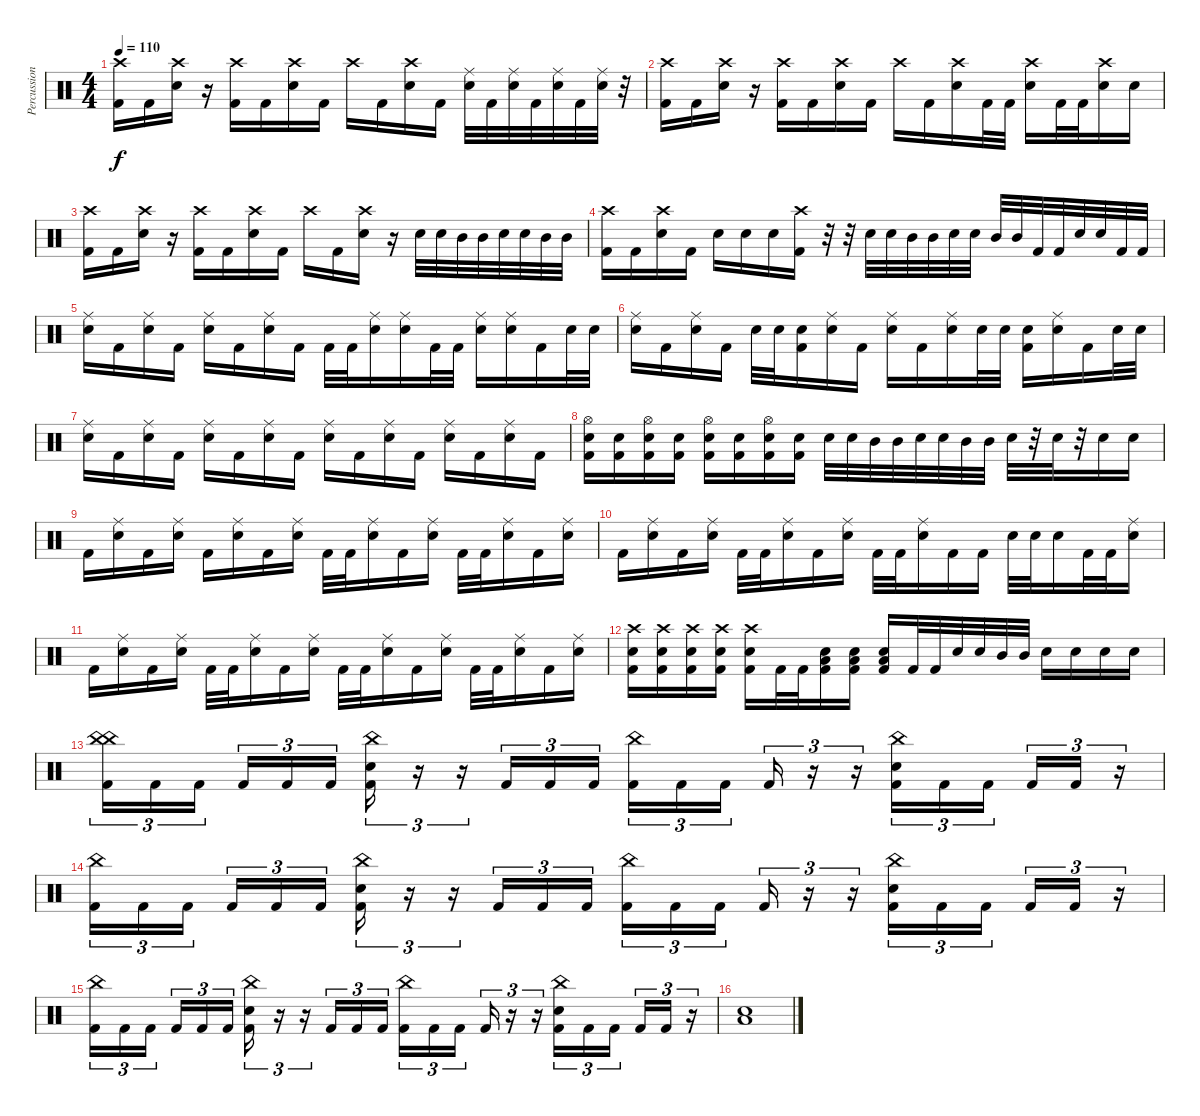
\track ("Percussion" "Percussion") {instrument percussion}
\staff {score}
\articulation defaults
\ts (4 4)
\tempo 110
\clef neutral
\ks c
("Crash high (hit)" "Kick (hit) 2").16{dy f} "Kick (hit) 2".16 ("Crash high (hit)" "Electric Snare (hit)").16 r.16 ("Crash high (hit)" "Kick (hit) 2").16 "Kick (hit) 2".16 ("Crash high (hit)" "Electric Snare (hit)").16 "Kick (hit) 2".16 "Crash high (hit)".16 "Kick (hit) 2".16 ("Crash high (hit)" "Electric Snare (hit)").16 "Kick (hit) 2".16 ("Ride (middle)" "Electric Snare (hit)").32 "Kick (hit) 2".32 ("Ride (middle)" "Electric Snare (hit)").32 "Kick (hit) 2".32 ("Ride (middle)" "Electric Snare (hit)").32 "Kick (hit) 2".32 ("Ride (middle)" "Electric Snare (hit)").32 r.32 |
("Crash high (hit)" "Kick (hit) 2").16 "Kick (hit) 2".16 ("Crash high (hit)" "Electric Snare (hit)").16 r.16 ("Crash high (hit)" "Kick (hit) 2").16 "Kick (hit) 2".16 ("Crash high (hit)" "Electric Snare (hit)").16 "Kick (hit) 2".16 "Crash high (hit)".16 "Kick (hit) 2".16 ("Crash high (hit)" "Electric Snare (hit)").16 "Kick (hit) 2".32 "Kick (hit) 2".32 ("Crash high (hit)" "Electric Snare (hit)").16 "Kick (hit) 2".32 "Kick (hit) 2".32 ("Crash high (hit)" "Electric Snare (hit)").16 "Electric Snare (hit)".16 |
("Crash high (hit)" "Kick (hit) 2").16 "Kick (hit) 2".16 ("Crash high (hit)" "Electric Snare (hit)").16 r.16 ("Crash high (hit)" "Kick (hit) 2").16 "Kick (hit) 2".16 ("Crash high (hit)" "Electric Snare (hit)").16 "Kick (hit) 2".16 "Crash high (hit)".16 "Kick (hit) 2".16 ("Crash high (hit)" "Electric Snare (hit)").16 r.16 "Electric Snare (hit)".32 "Electric Snare (hit)".32 "Mid Tom (hit)".32 "Mid Tom (hit)".32 "Electric Snare (hit)".32 "Electric Snare (hit)".32 "Mid Tom (hit)".32 "Mid Tom (hit)".32 |
("Crash high (hit)" "Kick (hit) 2").16 "Kick (hit) 2".16 ("Crash high (hit)" "Electric Snare (hit)").16 "Kick (hit) 2".16 "Electric Snare (hit)".16 "Electric Snare (hit)".16 "Electric Snare (hit)".16 ("Crash high (hit)" "Kick (hit) 2").16 r.32 r.32 "Electric Snare (hit)".32 "Electric Snare (hit)".32 "Mid Tom (hit)".32 "Mid Tom (hit)".32 "Electric Snare (hit)".32 "Electric Snare (hit)".32 "Mid Tom (hit)".32 "Mid Tom (hit)".32 "Kick (hit) 2".32 "Kick (hit) 2".32 "Electric Snare (hit)".32 "Electric Snare (hit)".32 "Kick (hit) 2".32 "Kick (hit) 2".32 |
("Ride (middle)" "Electric Snare (hit)").16 "Kick (hit) 2".16 ("Ride (middle)" "Electric Snare (hit)").16 "Kick (hit) 2".16 ("Ride (middle)" "Electric Snare (hit)").16 "Kick (hit) 2".16 ("Ride (middle)" "Electric Snare (hit)").16 "Kick (hit) 2".16 "Kick (hit) 2".32 "Kick (hit) 2".32 ("Ride (middle)" "Electric Snare (hit)").16 ("Ride (middle)" "Electric Snare (hit)").16 "Kick (hit) 2".32 "Kick (hit) 2".32 ("Ride (middle)" "Electric Snare (hit)").16 ("Ride (middle)" "Electric Snare (hit)").16 "Kick (hit) 2".16 "Electric Snare (hit)".32 "Electric Snare (hit)".32 |
("Ride (middle)" "Electric Snare (hit)").16 "Kick (hit) 2".16 ("Ride (middle)" "Electric Snare (hit)").16 "Kick (hit) 2".16 "Electric Snare (hit)".32 "Electric Snare (hit)".32 ("Electric Snare (hit)" "Kick (hit) 2").16 ("Ride (middle)" "Electric Snare (hit)").16 "Kick (hit) 2".16 ("Ride (middle)" "Electric Snare (hit)").16 "Kick (hit) 2".16 ("Ride (middle)" "Electric Snare (hit)").16 "Electric Snare (hit)".32 "Electric Snare (hit)".32 ("Electric Snare (hit)" "Kick (hit) 2").16 ("Ride (middle)" "Electric Snare (hit)").16 "Kick (hit) 2".16 "Electric Snare (hit)".32 "Electric Snare (hit)".32 |
("Ride (middle)" "Electric Snare (hit)").16 "Kick (hit) 2".16 ("Ride (middle)" "Electric Snare (hit)").16 "Kick (hit) 2".16 ("Ride (middle)" "Electric Snare (hit)").16 "Kick (hit) 2".16 ("Ride (middle)" "Electric Snare (hit)").16 "Kick (hit) 2".16 ("Ride (middle)" "Electric Snare (hit)").16 "Kick (hit) 2".16 ("Ride (middle)" "Electric Snare (hit)").16 "Kick (hit) 2".16 ("Ride (middle)" "Electric Snare (hit)").16 "Kick (hit) 2".16 ("Ride (middle)" "Electric Snare (hit)").16 "Kick (hit) 2".16 |
("Hi-Hat (open)" "Electric Snare (hit)" "Kick (hit) 2").16 ("Electric Snare (hit)" "Kick (hit) 2").16 ("Hi-Hat (open)" "Electric Snare (hit)" "Kick (hit) 2").16 ("Electric Snare (hit)" "Kick (hit) 2").16 ("Hi-Hat (open)" "Electric Snare (hit)" "Kick (hit) 2").16 ("Electric Snare (hit)" "Kick (hit) 2").16 ("Hi-Hat (open)" "Electric Snare (hit)" "Kick (hit) 2").16 ("Electric Snare (hit)" "Kick (hit) 2").16 "Electric Snare (hit)".32 "Electric Snare (hit)".32 "Mid Tom (hit)".32 "Mid Tom (hit)".32 "Electric Snare (hit)".32 "Electric Snare (hit)".32 "Mid Tom (hit)".32 "Mid Tom (hit)".32 "Electric Snare (hit)".32 r.32 "Electric Snare (hit)".32 r.32 "Electric Snare (hit)".16 "Electric Snare (hit)".16 |
"Kick (hit) 2".16 ("Ride (middle)" "Electric Snare (hit)").16 "Kick (hit) 2".16 ("Ride (middle)" "Electric Snare (hit)").16 "Kick (hit) 2".16 ("Ride (middle)" "Electric Snare (hit)").16 "Kick (hit) 2".16 ("Ride (middle)" "Electric Snare (hit)").16 "Kick (hit) 2".32 "Kick (hit) 2".32 ("Ride (middle)" "Electric Snare (hit)").16 "Kick (hit) 2".16 ("Ride (middle)" "Electric Snare (hit)").16 "Kick (hit) 2".32 "Kick (hit) 2".32 ("Ride (middle)" "Electric Snare (hit)").16 "Kick (hit) 2".16 ("Ride (middle)" "Electric Snare (hit)").16 |
"Kick (hit) 2".16 ("Ride (middle)" "Electric Snare (hit)").16 "Kick (hit) 2".16 ("Ride (middle)" "Electric Snare (hit)").16 "Kick (hit) 2".32 "Kick (hit) 2".32 ("Ride (middle)" "Electric Snare (hit)").16 "Kick (hit) 2".16 ("Ride (middle)" "Electric Snare (hit)").16 "Kick (hit) 2".32 "Kick (hit) 2".32 ("Ride (middle)" "Electric Snare (hit)").16 "Kick (hit) 2".16 "Kick (hit) 2".16 "Electric Snare (hit)".32 "Electric Snare (hit)".32 "Electric Snare (hit)".16 "Kick (hit) 2".32 "Kick (hit) 2".32 ("Ride (middle)" "Electric Snare (hit)").16 |
"Kick (hit) 2".16 ("Ride (middle)" "Electric Snare (hit)").16 "Kick (hit) 2".16 ("Ride (middle)" "Electric Snare (hit)").16 "Kick (hit) 2".32 "Kick (hit) 2".32 ("Ride (middle)" "Electric Snare (hit)").16 "Kick (hit) 2".16 ("Ride (middle)" "Electric Snare (hit)").16 "Kick (hit) 2".32 "Kick (hit) 2".32 ("Ride (middle)" "Electric Snare (hit)").16 "Kick (hit) 2".16 ("Ride (middle)" "Electric Snare (hit)").16 "Kick (hit) 2".32 "Kick (hit) 2".32 ("Ride (middle)" "Electric Snare (hit)").16 "Kick (hit) 2".16 ("Ride (middle)" "Electric Snare (hit)").16 |
("Crash high (hit)" "Electric Snare (hit)" "Kick (hit) 2").16 ("Crash high (hit)" "Electric Snare (hit)" "Kick (hit) 2").16 ("Crash high (hit)" "Electric Snare (hit)" "Kick (hit) 2").16 ("Crash high (hit)" "Electric Snare (hit)" "Kick (hit) 2").16 ("Crash high (hit)" "Electric Snare (hit)" "Kick (hit) 2").16 "Kick (hit) 2".32 "Kick (hit) 2".32 ("Low Floor Tom (hit)" "Electric Snare (hit)" "Kick (hit) 2").16 ("Low Floor Tom (hit)" "Electric Snare (hit)" "Kick (hit) 2").16 ("Low Floor Tom (hit)" "Electric Snare (hit)" "Kick (hit) 2").16 "Kick (hit) 2".32 "Kick (hit) 2".32 "Electric Snare (hit)".32 "Electric Snare (hit)".32 "Mid Tom (hit)".32 "Mid Tom (hit)".32 "Electric Snare (hit)".16 "Electric Snare (hit)".16 "Electric Snare (hit)".16 "Electric Snare (hit)".16 |
("China (hit)" "China (hit)" "Kick (hit) 2").16{tu (3 2)} "Kick (hit) 2".16{tu (3 2)} "Kick (hit) 2".16{tu (3 2) beam splitsecondary} "Kick (hit) 2".16{tu (3 2)} "Kick (hit) 2".16{tu (3 2)} "Kick (hit) 2".16{tu (3 2)} ("China (hit)" "Electric Snare (hit)" "Kick (hit) 2").16{tu (3 2)} r.16{tu (3 2)} r.16{tu (3 2)} "Kick (hit) 2".16{tu (3 2)} "Kick (hit) 2".16{tu (3 2)} "Kick (hit) 2".16{tu (3 2)} ("China (hit)" "Kick (hit) 2").16{tu (3 2)} "Kick (hit) 2".16{tu (3 2)} "Kick (hit) 2".16{tu (3 2) beam splitsecondary} "Kick (hit) 2".16{tu (3 2)} r.16{tu (3 2)} r.16{tu (3 2)} ("China (hit)" "Electric Snare (hit)" "Kick (hit) 2").16{tu (3 2)} "Kick (hit) 2".16{tu (3 2)} "Kick (hit) 2".16{tu (3 2) beam splitsecondary} "Kick (hit) 2".16{tu (3 2)} "Kick (hit) 2".16{tu (3 2)} r.16{tu (3 2)} |
("China (hit)" "Kick (hit) 2").16{tu (3 2)} "Kick (hit) 2".16{tu (3 2)} "Kick (hit) 2".16{tu (3 2) beam splitsecondary} "Kick (hit) 2".16{tu (3 2)} "Kick (hit) 2".16{tu (3 2)} "Kick (hit) 2".16{tu (3 2)} ("China (hit)" "Electric Snare (hit)" "Kick (hit) 2").16{tu (3 2)} r.16{tu (3 2)} r.16{tu (3 2)} "Kick (hit) 2".16{tu (3 2)} "Kick (hit) 2".16{tu (3 2)} "Kick (hit) 2".16{tu (3 2)} ("China (hit)" "Kick (hit) 2").16{tu (3 2)} "Kick (hit) 2".16{tu (3 2)} "Kick (hit) 2".16{tu (3 2) beam splitsecondary} "Kick (hit) 2".16{tu (3 2)} r.16{tu (3 2)} r.16{tu (3 2)} ("China (hit)" "Electric Snare (hit)" "Kick (hit) 2").16{tu (3 2)} "Kick (hit) 2".16{tu (3 2)} "Kick (hit) 2".16{tu (3 2) beam splitsecondary} "Kick (hit) 2".16{tu (3 2)} "Kick (hit) 2".16{tu (3 2)} r.16{tu (3 2)} |
("China (hit)" "Kick (hit) 2").16{tu (3 2)} "Kick (hit) 2".16{tu (3 2)} "Kick (hit) 2".16{tu (3 2) beam splitsecondary} "Kick (hit) 2".16{tu (3 2)} "Kick (hit) 2".16{tu (3 2)} "Kick (hit) 2".16{tu (3 2)} ("China (hit)" "Electric Snare (hit)" "Kick (hit) 2").16{tu (3 2)} r.16{tu (3 2)} r.16{tu (3 2)} "Kick (hit) 2".16{tu (3 2)} "Kick (hit) 2".16{tu (3 2)} "Kick (hit) 2".16{tu (3 2)} ("China (hit)" "Kick (hit) 2").16{tu (3 2)} "Kick (hit) 2".16{tu (3 2)} "Kick (hit) 2".16{tu (3 2) beam splitsecondary} "Kick (hit) 2".16{tu (3 2)} r.16{tu (3 2)} r.16{tu (3 2)} ("China (hit)" "Electric Snare (hit)" "Kick (hit) 2").16{tu (3 2)} "Kick (hit) 2".16{tu (3 2)} "Kick (hit) 2".16{tu (3 2) beam splitsecondary} "Kick (hit) 2".16{tu (3 2)} "Kick (hit) 2".16{tu (3 2)} r.16{tu (3 2)} |
("Low Floor Tom (hit)" "Electric Snare (hit)").1
